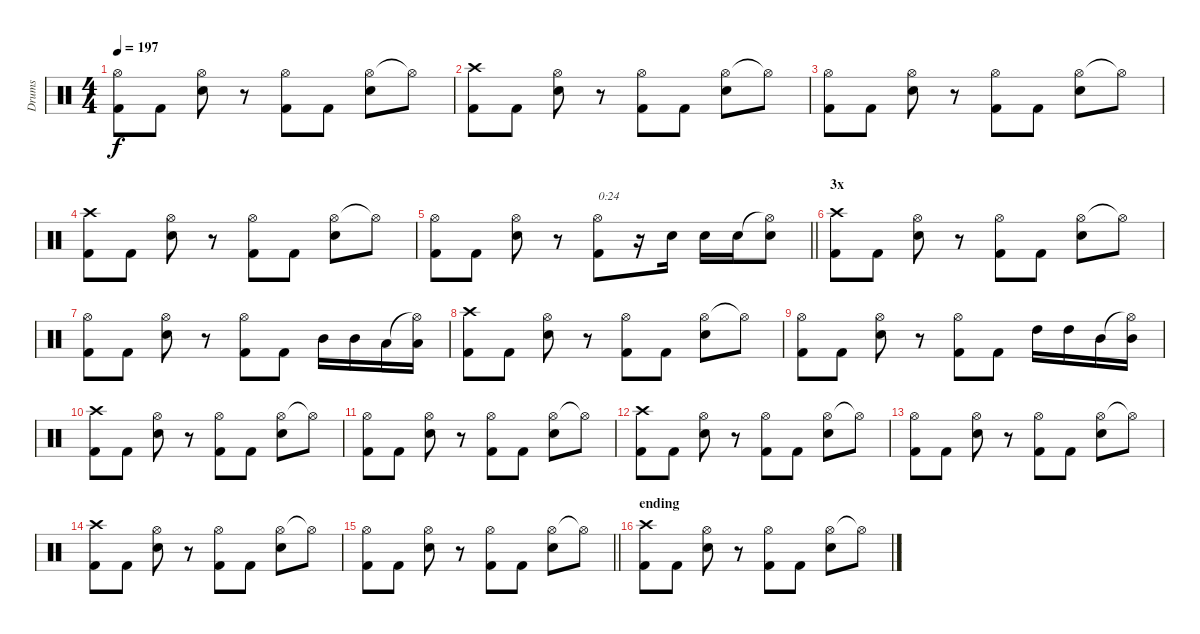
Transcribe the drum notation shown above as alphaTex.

\track ("Drums" "Drums") {instrument percussion}
\staff {score}
\articulation defaults
\ts (4 4)
\tempo 197
\clef neutral
\ks c
("Hi-Hat (open)" "Kick (hit) 2").8{dy f} "Kick (hit) 2".8 ("Hi-Hat (open)" "Snare (hit) 2").8 r.8 ("Hi-Hat (open)" "Kick (hit) 2").8 "Kick (hit) 2".8 ("Hi-Hat (open)" "Snare (hit) 2").8 "Hi-Hat (open)"{t}.8 |
("Crash high (hit)" "Kick (hit) 2").8 "Kick (hit) 2".8 ("Hi-Hat (open)" "Snare (hit) 2").8 r.8 ("Hi-Hat (open)" "Kick (hit) 2").8 "Kick (hit) 2".8 ("Hi-Hat (open)" "Snare (hit) 2").8 "Hi-Hat (open)"{t}.8 |
("Hi-Hat (open)" "Kick (hit) 2").8 "Kick (hit) 2".8 ("Hi-Hat (open)" "Snare (hit) 2").8 r.8 ("Hi-Hat (open)" "Kick (hit) 2").8 "Kick (hit) 2".8 ("Hi-Hat (open)" "Snare (hit) 2").8 "Hi-Hat (open)"{t}.8 |
("Crash high (hit)" "Kick (hit) 2").8 "Kick (hit) 2".8 ("Hi-Hat (open)" "Snare (hit) 2").8 r.8 ("Hi-Hat (open)" "Kick (hit) 2").8 "Kick (hit) 2".8 ("Hi-Hat (open)" "Snare (hit) 2").8 "Hi-Hat (open)"{t}.8 |
\barLineRight lightlight
("Hi-Hat (open)" "Kick (hit) 2").8 "Kick (hit) 2".8 ("Hi-Hat (open)" "Snare (hit) 2").8 r.8 ("Hi-Hat (open)" "Kick (hit) 2").8{txt "0:24"} r.16 "Snare (hit) 2".16 "Snare (hit) 2".16 "Snare (hit) 2".16 ("Hi-Hat (open)"{t} "Snare (hit) 2").8 |
\section ("" "3x")
("Crash high (hit)" "Kick (hit) 2").8 "Kick (hit) 2".8 ("Hi-Hat (open)" "Snare (hit) 2").8 r.8 ("Hi-Hat (open)" "Kick (hit) 2").8 "Kick (hit) 2".8 ("Hi-Hat (open)" "Snare (hit) 2").8 "Hi-Hat (open)"{t}.8 |
("Hi-Hat (open)" "Kick (hit) 2").8 "Kick (hit) 2".8 ("Hi-Hat (open)" "Snare (hit) 2").8 r.8 ("Hi-Hat (open)" "Kick (hit) 2").8 "Kick (hit) 2".8 "Mid Tom (hit)".16 "Mid Tom (hit)".16 "Low Tom (hit)".16 ("Hi-Hat (open)"{t} "Low Tom (hit)").16 |
("Crash high (hit)" "Kick (hit) 2").8 "Kick (hit) 2".8 ("Hi-Hat (open)" "Snare (hit) 2").8 r.8 ("Hi-Hat (open)" "Kick (hit) 2").8 "Kick (hit) 2".8 ("Hi-Hat (open)" "Snare (hit) 2").8 "Hi-Hat (open)"{t}.8 |
("Hi-Hat (open)" "Kick (hit) 2").8 "Kick (hit) 2".8 ("Hi-Hat (open)" "Snare (hit) 2").8 r.8 ("Hi-Hat (open)" "Kick (hit) 2").8 "Kick (hit) 2".8 "High Tom (hit)".16 "High Tom (hit)".16 "Mid Tom (hit)".16 ("Hi-Hat (open)"{t} "Mid Tom (hit)").16 |
("Crash high (hit)" "Kick (hit) 2").8 "Kick (hit) 2".8 ("Hi-Hat (open)" "Snare (hit) 2").8 r.8 ("Hi-Hat (open)" "Kick (hit) 2").8 "Kick (hit) 2".8 ("Hi-Hat (open)" "Snare (hit) 2").8 "Hi-Hat (open)"{t}.8 |
("Hi-Hat (open)" "Kick (hit) 2").8 "Kick (hit) 2".8 ("Hi-Hat (open)" "Snare (hit) 2").8 r.8 ("Hi-Hat (open)" "Kick (hit) 2").8 "Kick (hit) 2".8 ("Hi-Hat (open)" "Snare (hit) 2").8 "Hi-Hat (open)"{t}.8 |
("Crash high (hit)" "Kick (hit) 2").8 "Kick (hit) 2".8 ("Hi-Hat (open)" "Snare (hit) 2").8 r.8 ("Hi-Hat (open)" "Kick (hit) 2").8 "Kick (hit) 2".8 ("Hi-Hat (open)" "Snare (hit) 2").8 "Hi-Hat (open)"{t}.8 |
("Hi-Hat (open)" "Kick (hit) 2").8 "Kick (hit) 2".8 ("Hi-Hat (open)" "Snare (hit) 2").8 r.8 ("Hi-Hat (open)" "Kick (hit) 2").8 "Kick (hit) 2".8 ("Hi-Hat (open)" "Snare (hit) 2").8 "Hi-Hat (open)"{t}.8 |
("Crash high (hit)" "Kick (hit) 2").8 "Kick (hit) 2".8 ("Hi-Hat (open)" "Snare (hit) 2").8 r.8 ("Hi-Hat (open)" "Kick (hit) 2").8 "Kick (hit) 2".8 ("Hi-Hat (open)" "Snare (hit) 2").8 "Hi-Hat (open)"{t}.8 |
\barLineRight lightlight
("Hi-Hat (open)" "Kick (hit) 2").8 "Kick (hit) 2".8 ("Hi-Hat (open)" "Snare (hit) 2").8 r.8 ("Hi-Hat (open)" "Kick (hit) 2").8 "Kick (hit) 2".8 ("Hi-Hat (open)" "Snare (hit) 2").8 "Hi-Hat (open)"{t}.8 |
\section ("" "ending")
("Crash high (hit)" "Kick (hit) 2").8 "Kick (hit) 2".8 ("Hi-Hat (open)" "Snare (hit) 2").8 r.8 ("Hi-Hat (open)" "Kick (hit) 2").8 "Kick (hit) 2".8 ("Hi-Hat (open)" "Snare (hit) 2").8 "Hi-Hat (open)"{t}.8
